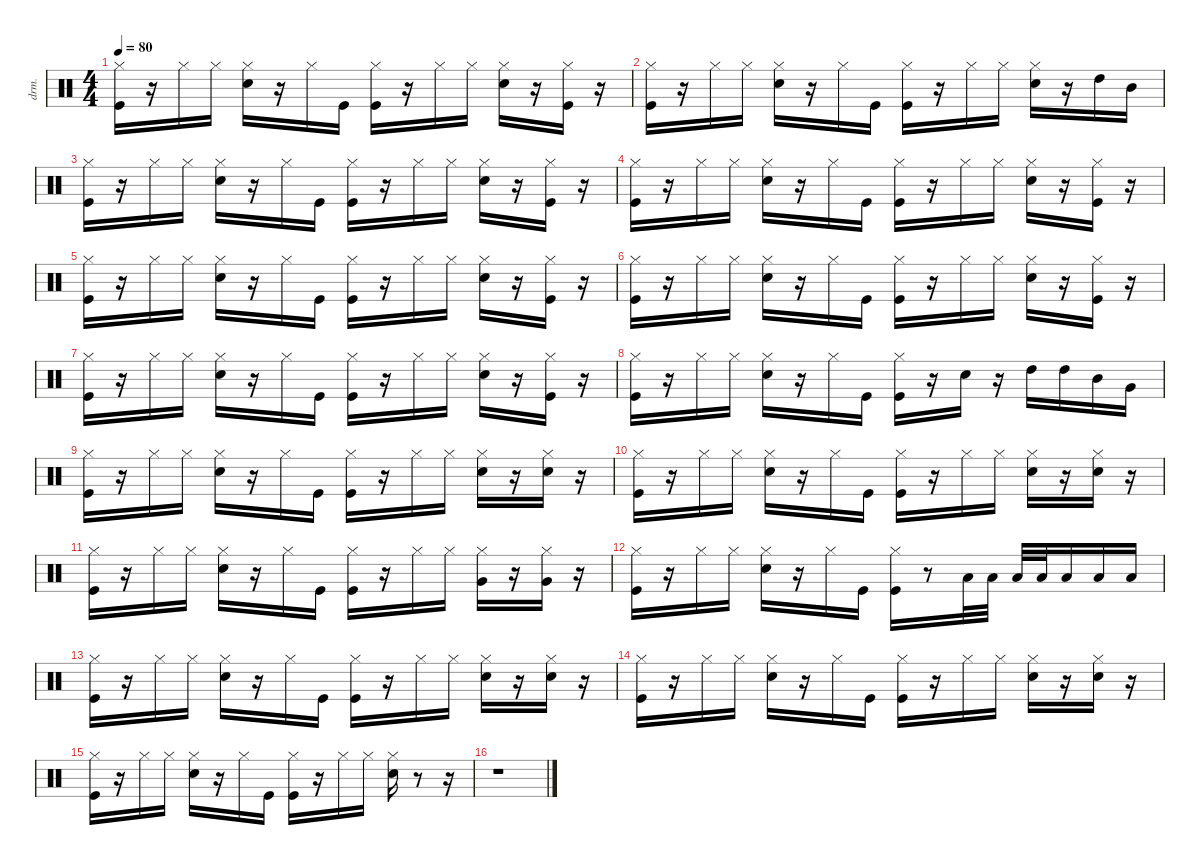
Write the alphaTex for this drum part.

\defaultSystemsLayout 4
\hideDynamics
\bracketExtendMode nobrackets
\track ("Percussions" "drm.") {instrument percussion}
\staff {score}
\articulation defaults
\ts (4 4)
\tempo 80
\clef neutral
\ks c
("Kick (hit)" "Hi-Hat (closed)").16{dy f beam Down} r.16{beam Down} "Hi-Hat (closed)".16{beam Down} "Hi-Hat (closed)".16{beam Down} ("Snare (hit) 2" "Hi-Hat (closed)").16{beam Down} r.16{beam Down} "Hi-Hat (closed)".16{beam Down} "Kick (hit)".16{beam Down} ("Kick (hit)" "Hi-Hat (closed)").16{beam Down} r.16{beam Down} "Hi-Hat (closed)".16{beam Down} "Hi-Hat (closed)".16{beam Down} ("Snare (hit) 2" "Hi-Hat (closed)").16{beam Down} r.16{beam Down} ("Kick (hit)" "Hi-Hat (closed)").16{beam Down} r.16{beam Down} |
("Kick (hit)" "Hi-Hat (closed)").16{beam Down} r.16{beam Down} "Hi-Hat (closed)".16{beam Down} "Hi-Hat (closed)".16{beam Down} ("Snare (hit) 2" "Hi-Hat (closed)").16{beam Down} r.16{beam Down} "Hi-Hat (closed)".16{beam Down} "Kick (hit)".16{beam Down} ("Kick (hit)" "Hi-Hat (closed)").16{beam Down} r.16{beam Down} "Hi-Hat (closed)".16{beam Down} "Hi-Hat (closed)".16{beam Down} ("Snare (hit) 2" "Hi-Hat (closed)").16{beam Down} r.16{beam Down} "High Tom (hit)".16{beam Down} "Mid Tom (hit)".16{beam Down} |
("Kick (hit)" "Hi-Hat (closed)").16{beam Down} r.16{beam Down} "Hi-Hat (closed)".16{beam Down} "Hi-Hat (closed)".16{beam Down} ("Snare (hit) 2" "Hi-Hat (closed)").16{beam Down} r.16{beam Down} "Hi-Hat (closed)".16{beam Down} "Kick (hit)".16{beam Down} ("Kick (hit)" "Hi-Hat (closed)").16{beam Down} r.16{beam Down} "Hi-Hat (closed)".16{beam Down} "Hi-Hat (closed)".16{beam Down} ("Snare (hit) 2" "Hi-Hat (closed)").16{beam Down} r.16{beam Down} ("Kick (hit)" "Hi-Hat (closed)").16{beam Down} r.16{beam Down} |
("Kick (hit)" "Hi-Hat (closed)").16{beam Down} r.16{beam Down} "Hi-Hat (closed)".16{beam Down} "Hi-Hat (closed)".16{beam Down} ("Snare (hit) 2" "Hi-Hat (closed)").16{beam Down} r.16{beam Down} "Hi-Hat (closed)".16{beam Down} "Kick (hit)".16{beam Down} ("Kick (hit)" "Hi-Hat (closed)").16{beam Down} r.16{beam Down} "Hi-Hat (closed)".16{beam Down} "Hi-Hat (closed)".16{beam Down} ("Snare (hit) 2" "Hi-Hat (closed)").16{beam Down} r.16{beam Down} ("Kick (hit)" "Hi-Hat (closed)").16{beam Down} r.16{beam Down} |
("Kick (hit)" "Hi-Hat (closed)").16{beam Down} r.16{beam Down} "Hi-Hat (closed)".16{beam Down} "Hi-Hat (closed)".16{beam Down} ("Snare (hit) 2" "Hi-Hat (closed)").16{beam Down} r.16{beam Down} "Hi-Hat (closed)".16{beam Down} "Kick (hit)".16{beam Down} ("Kick (hit)" "Hi-Hat (closed)").16{beam Down} r.16{beam Down} "Hi-Hat (closed)".16{beam Down} "Hi-Hat (closed)".16{beam Down} ("Snare (hit) 2" "Hi-Hat (closed)").16{beam Down} r.16{beam Down} ("Kick (hit)" "Hi-Hat (closed)").16{beam Down} r.16{beam Down} |
("Kick (hit)" "Hi-Hat (closed)").16{beam Down} r.16{beam Down} "Hi-Hat (closed)".16{beam Down} "Hi-Hat (closed)".16{beam Down} ("Snare (hit) 2" "Hi-Hat (closed)").16{beam Down} r.16{beam Down} "Hi-Hat (closed)".16{beam Down} "Kick (hit)".16{beam Down} ("Kick (hit)" "Hi-Hat (closed)").16{beam Down} r.16{beam Down} "Hi-Hat (closed)".16{beam Down} "Hi-Hat (closed)".16{beam Down} ("Snare (hit) 2" "Hi-Hat (closed)").16{beam Down} r.16{beam Down} ("Kick (hit)" "Hi-Hat (closed)").16{beam Down} r.16{beam Down} |
("Kick (hit)" "Hi-Hat (closed)").16{beam Down} r.16{beam Down} "Hi-Hat (closed)".16{beam Down} "Hi-Hat (closed)".16{beam Down} ("Snare (hit) 2" "Hi-Hat (closed)").16{beam Down} r.16{beam Down} "Hi-Hat (closed)".16{beam Down} "Kick (hit)".16{beam Down} ("Kick (hit)" "Hi-Hat (closed)").16{beam Down} r.16{beam Down} "Hi-Hat (closed)".16{beam Down} "Hi-Hat (closed)".16{beam Down} ("Snare (hit) 2" "Hi-Hat (closed)").16{beam Down} r.16{beam Down} ("Kick (hit)" "Hi-Hat (closed)").16{beam Down} r.16{beam Down} |
("Kick (hit)" "Hi-Hat (closed)").16{beam Down} r.16{beam Down} "Hi-Hat (closed)".16{beam Down} "Hi-Hat (closed)".16{beam Down} ("Snare (hit) 2" "Hi-Hat (closed)").16{beam Down} r.16{beam Down} "Hi-Hat (closed)".16{beam Down} "Kick (hit)".16{beam Down} ("Kick (hit)" "Hi-Hat (closed)").16{beam Down} r.16{beam Down} "Snare (hit) 2".16{beam Down} r.16{beam Down} "High Tom (hit)".16{beam Down} "High Tom (hit)".16{beam Down} "Mid Tom (hit)".16{beam Down} "Very Low Tom (hit)".16{beam Down} |
("Kick (hit)" "Hi-Hat (closed)").16{beam Down} r.16{beam Down} "Hi-Hat (closed)".16{beam Down} "Hi-Hat (closed)".16{beam Down} ("Snare (hit) 2" "Hi-Hat (closed)").16{beam Down} r.16{beam Down} "Hi-Hat (closed)".16{beam Down} "Kick (hit)".16{beam Down} ("Kick (hit)" "Hi-Hat (closed)").16{beam Down} r.16{beam Down} "Hi-Hat (closed)".16{beam Down} "Hi-Hat (closed)".16{beam Down} ("Snare (hit) 2" "Hi-Hat (closed)").16{beam Down} r.16{beam Down} ("Snare (hit) 2" "Hi-Hat (closed)").16{beam Down} r.16{beam Down} |
("Kick (hit)" "Hi-Hat (closed)").16{beam Down} r.16{beam Down} "Hi-Hat (closed)".16{beam Down} "Hi-Hat (closed)".16{beam Down} ("Snare (hit) 2" "Hi-Hat (closed)").16{beam Down} r.16{beam Down} "Hi-Hat (closed)".16{beam Down} "Kick (hit)".16{beam Down} ("Kick (hit)" "Hi-Hat (closed)").16{beam Down} r.16{beam Down} "Hi-Hat (closed)".16{beam Down} "Hi-Hat (closed)".16{beam Down} ("Snare (hit) 2" "Hi-Hat (closed)").16{beam Down} r.16{beam Down} ("Snare (hit) 2" "Hi-Hat (closed)").16{beam Down} r.16{beam Down} |
("Kick (hit)" "Hi-Hat (closed)").16{beam Down} r.16{beam Down} "Hi-Hat (closed)".16{beam Down} "Hi-Hat (closed)".16{beam Down} ("Snare (hit) 2" "Hi-Hat (closed)").16{beam Down} r.16{beam Down} "Hi-Hat (closed)".16{beam Down} "Kick (hit)".16{beam Down} ("Kick (hit)" "Hi-Hat (closed)").16{beam Down} r.16{beam Down} "Hi-Hat (closed)".16{beam Down} "Hi-Hat (closed)".16{beam Down} ("Very Low Tom (hit)" "Hi-Hat (closed)").16{beam Down} r.16{beam Down} ("Very Low Tom (hit)" "Hi-Hat (closed)").16{beam Down} r.16{beam Down} |
("Kick (hit)" "Hi-Hat (closed)").16{beam Down} r.16{beam Down} "Hi-Hat (closed)".16{beam Down} "Hi-Hat (closed)".16{beam Down} ("Snare (hit) 2" "Hi-Hat (closed)").16{beam Down} r.16{beam Down} "Hi-Hat (closed)".16{beam Down} "Kick (hit)".16{beam Down} ("Kick (hit)" "Hi-Hat (closed)").16{beam Down} r.8{beam Down} "Low Tom (hit)".32{beam Down} "Low Tom (hit)".32{beam Down} "Low Tom (hit)".32{beam Up} "Low Tom (hit)".32{beam Up} "Low Floor Tom (hit)".16{beam Up} "Low Floor Tom (hit)".16{beam Up} "Low Floor Tom (hit)".16{beam Up} |
("Kick (hit)" "Hi-Hat (closed)").16{beam Down} r.16{beam Down} "Hi-Hat (closed)".16{beam Down} "Hi-Hat (closed)".16{beam Down} ("Snare (hit) 2" "Hi-Hat (closed)").16{beam Down} r.16{beam Down} "Hi-Hat (closed)".16{beam Down} "Kick (hit)".16{beam Down} ("Kick (hit)" "Hi-Hat (closed)").16{beam Down} r.16{beam Down} "Hi-Hat (closed)".16{beam Down} "Hi-Hat (closed)".16{beam Down} ("Snare (hit) 2" "Hi-Hat (closed)").16{beam Down} r.16{beam Down} ("Snare (hit) 2" "Hi-Hat (closed)").16{beam Down} r.16{beam Down} |
("Kick (hit)" "Hi-Hat (closed)").16{beam Down} r.16{beam Down} "Hi-Hat (closed)".16{beam Down} "Hi-Hat (closed)".16{beam Down} ("Snare (hit) 2" "Hi-Hat (closed)").16{beam Down} r.16{beam Down} "Hi-Hat (closed)".16{beam Down} "Kick (hit)".16{beam Down} ("Kick (hit)" "Hi-Hat (closed)").16{beam Down} r.16{beam Down} "Hi-Hat (closed)".16{beam Down} "Hi-Hat (closed)".16{beam Down} ("Snare (hit) 2" "Hi-Hat (closed)").16{beam Down} r.16{beam Down} ("Snare (hit) 2" "Hi-Hat (closed)").16{beam Down} r.16{beam Down} |
("Kick (hit)" "Hi-Hat (closed)").16{beam Down} r.16{beam Down} "Hi-Hat (closed)".16{beam Down} "Hi-Hat (closed)".16{beam Down} ("Snare (hit) 2" "Hi-Hat (closed)").16{beam Down} r.16{beam Down} "Hi-Hat (closed)".16{beam Down} "Kick (hit)".16{beam Down} ("Kick (hit)" "Hi-Hat (closed)").16{beam Down} r.16{beam Down} "Hi-Hat (closed)".16{beam Down} "Hi-Hat (closed)".16{beam Down} ("Snare (hit) 2" "Hi-Hat (closed)").16{beam Down} r.8{beam Down} r.16{beam Down} |
r.1{beam Down}
